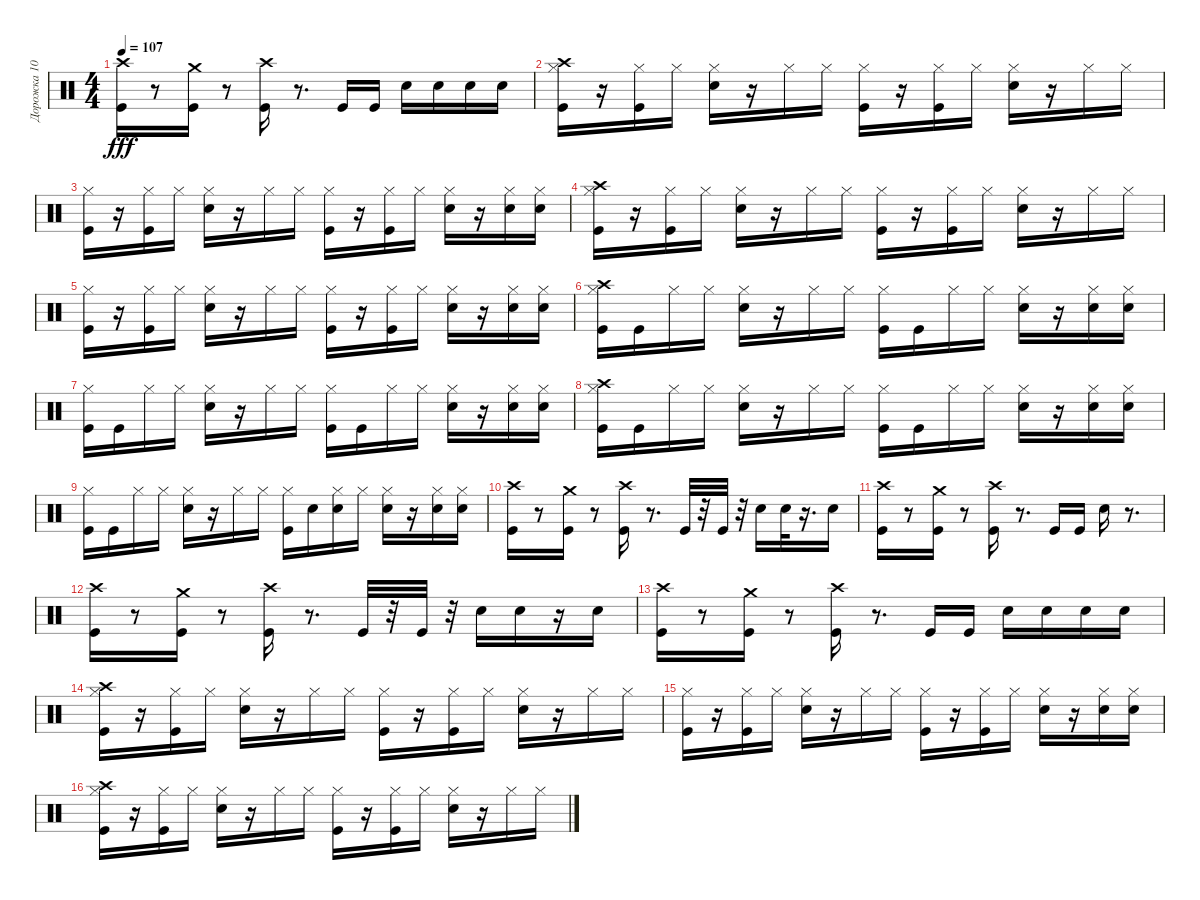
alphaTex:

\track ("Дорожка 10" "Дорожка 10") {instrument percussion}
\staff {score}
\articulation defaults
\ts (4 4)
\tempo 107
\clef neutral
\ks c
("Kick (hit)" "Crash high (hit)").16{dy fff} r.8 ("Crash medium (hit)" "Kick (hit)").16 r.8 ("Kick (hit)" "Crash high (hit)").16 r.8{d} "Kick (hit)".16 "Kick (hit)".16 "Electric Snare (hit)".16 "Electric Snare (hit)".16 "Electric Snare (hit)".16 "Electric Snare (hit)".16 |
("Kick (hit)" "Crash high (hit)" "Hi-Hat (closed)").16 r.16 ("Hi-Hat (closed)" "Kick (hit)").16 "Hi-Hat (closed)".16 ("Hi-Hat (closed)" "Electric Snare (hit)").16 r.16 "Hi-Hat (closed)".16 "Hi-Hat (closed)".16 ("Kick (hit)" "Hi-Hat (closed)").16 r.16 ("Hi-Hat (closed)" "Kick (hit)").16 "Hi-Hat (closed)".16 ("Electric Snare (hit)" "Hi-Hat (closed)").16 r.16 "Hi-Hat (closed)".16 "Hi-Hat (closed)".16 |
("Hi-Hat (closed)" "Kick (hit)").16 r.16 ("Kick (hit)" "Hi-Hat (closed)").16 "Hi-Hat (closed)".16 ("Electric Snare (hit)" "Hi-Hat (closed)").16 r.16 "Hi-Hat (closed)".16 "Hi-Hat (closed)".16 ("Hi-Hat (closed)" "Kick (hit)").16 r.16 ("Hi-Hat (closed)" "Kick (hit)").16 "Hi-Hat (closed)".16 ("Electric Snare (hit)" "Hi-Hat (closed)").16 r.16 ("Electric Snare (hit)" "Hi-Hat (closed)").16 ("Electric Snare (hit)" "Hi-Hat (closed)").16 |
("Kick (hit)" "Hi-Hat (closed)" "Crash high (hit)").16 r.16 ("Kick (hit)" "Hi-Hat (closed)").16 "Hi-Hat (closed)".16 ("Electric Snare (hit)" "Hi-Hat (closed)").16 r.16 "Hi-Hat (closed)".16 "Hi-Hat (closed)".16 ("Hi-Hat (closed)" "Kick (hit)").16 r.16 ("Hi-Hat (closed)" "Kick (hit)").16 "Hi-Hat (closed)".16 ("Hi-Hat (closed)" "Electric Snare (hit)").16 r.16 "Hi-Hat (closed)".16 "Hi-Hat (closed)".16 |
("Hi-Hat (closed)" "Kick (hit)").16 r.16 ("Kick (hit)" "Hi-Hat (closed)").16 "Hi-Hat (closed)".16 ("Hi-Hat (closed)" "Electric Snare (hit)").16 r.16 "Hi-Hat (closed)".16 "Hi-Hat (closed)".16 ("Kick (hit)" "Hi-Hat (closed)").16 r.16 ("Hi-Hat (closed)" "Kick (hit)").16 "Hi-Hat (closed)".16 ("Hi-Hat (closed)" "Electric Snare (hit)").16 r.16 ("Electric Snare (hit)" "Hi-Hat (closed)").16 ("Hi-Hat (closed)" "Electric Snare (hit)").16 |
("Hi-Hat (closed)" "Kick (hit)" "Crash high (hit)").16 "Kick (hit)".16 "Hi-Hat (closed)".16 "Hi-Hat (closed)".16 ("Hi-Hat (closed)" "Electric Snare (hit)").16 r.16 "Hi-Hat (closed)".16 "Hi-Hat (closed)".16 ("Hi-Hat (closed)" "Kick (hit)").16 "Kick (hit)".16 "Hi-Hat (closed)".16 "Hi-Hat (closed)".16 ("Electric Snare (hit)" "Hi-Hat (closed)").16 r.16 ("Hi-Hat (closed)" "Electric Snare (hit)").16 ("Hi-Hat (closed)" "Electric Snare (hit)").16 |
("Kick (hit)" "Hi-Hat (closed)").16 "Kick (hit)".16 "Hi-Hat (closed)".16 "Hi-Hat (closed)".16 ("Electric Snare (hit)" "Hi-Hat (closed)").16 r.16 "Hi-Hat (closed)".16 "Hi-Hat (closed)".16 ("Kick (hit)" "Hi-Hat (closed)").16 "Kick (hit)".16 "Hi-Hat (closed)".16 "Hi-Hat (closed)".16 ("Electric Snare (hit)" "Hi-Hat (closed)").16 r.16 ("Hi-Hat (closed)" "Electric Snare (hit)").16 ("Hi-Hat (closed)" "Electric Snare (hit)").16 |
("Kick (hit)" "Hi-Hat (closed)" "Crash high (hit)").16 "Kick (hit)".16 "Hi-Hat (closed)".16 "Hi-Hat (closed)".16 ("Electric Snare (hit)" "Hi-Hat (closed)").16 r.16 "Hi-Hat (closed)".16 "Hi-Hat (closed)".16 ("Hi-Hat (closed)" "Kick (hit)").16 "Kick (hit)".16 "Hi-Hat (closed)".16 "Hi-Hat (closed)".16 ("Electric Snare (hit)" "Hi-Hat (closed)").16 r.16 ("Hi-Hat (closed)" "Electric Snare (hit)").16 ("Hi-Hat (closed)" "Electric Snare (hit)").16 |
("Kick (hit)" "Hi-Hat (closed)").16 "Kick (hit)".16 "Hi-Hat (closed)".16 "Hi-Hat (closed)".16 ("Hi-Hat (closed)" "Electric Snare (hit)").16 r.16 "Hi-Hat (closed)".16 "Hi-Hat (closed)".16 ("Kick (hit)" "Hi-Hat (closed)").16 "Electric Snare (hit)".16 ("Hi-Hat (closed)" "Electric Snare (hit)").16 "Hi-Hat (closed)".16 ("Hi-Hat (closed)" "Electric Snare (hit)").16 r.16 ("Electric Snare (hit)" "Hi-Hat (closed)").16 ("Electric Snare (hit)" "Hi-Hat (closed)").16 |
("Kick (hit)" "Crash high (hit)").16 r.8 ("Kick (hit)" "Crash medium (hit)").16 r.8 ("Kick (hit)" "Crash high (hit)").16 r.8{d} "Kick (hit)".32 r.32 "Kick (hit)".32 r.32 "Electric Snare (hit)".16 "Electric Snare (hit)".32 r.16{d} "Electric Snare (hit)".16 |
("Kick (hit)" "Crash high (hit)").16 r.8 ("Crash medium (hit)" "Kick (hit)").16 r.8 ("Kick (hit)" "Crash high (hit)").16 r.8{d} "Kick (hit)".16 "Kick (hit)".16 "Electric Snare (hit)".16 r.8{d} |
("Crash high (hit)" "Kick (hit)").16 r.8 ("Crash medium (hit)" "Kick (hit)").16 r.8 ("Crash high (hit)" "Kick (hit)").16 r.8{d} "Kick (hit)".32 r.32 "Kick (hit)".32 r.32 "Electric Snare (hit)".16 "Electric Snare (hit)".16 r.16 "Electric Snare (hit)".16 |
("Kick (hit)" "Crash high (hit)").16 r.8 ("Crash medium (hit)" "Kick (hit)").16 r.8 ("Kick (hit)" "Crash high (hit)").16 r.8{d} "Kick (hit)".16 "Kick (hit)".16 "Electric Snare (hit)".16 "Electric Snare (hit)".16 "Electric Snare (hit)".16 "Electric Snare (hit)".16 |
("Kick (hit)" "Crash high (hit)" "Hi-Hat (closed)").16 r.16 ("Hi-Hat (closed)" "Kick (hit)").16 "Hi-Hat (closed)".16 ("Hi-Hat (closed)" "Electric Snare (hit)").16 r.16 "Hi-Hat (closed)".16 "Hi-Hat (closed)".16 ("Kick (hit)" "Hi-Hat (closed)").16 r.16 ("Hi-Hat (closed)" "Kick (hit)").16 "Hi-Hat (closed)".16 ("Electric Snare (hit)" "Hi-Hat (closed)").16 r.16 "Hi-Hat (closed)".16 "Hi-Hat (closed)".16 |
("Hi-Hat (closed)" "Kick (hit)").16 r.16 ("Kick (hit)" "Hi-Hat (closed)").16 "Hi-Hat (closed)".16 ("Electric Snare (hit)" "Hi-Hat (closed)").16 r.16 "Hi-Hat (closed)".16 "Hi-Hat (closed)".16 ("Hi-Hat (closed)" "Kick (hit)").16 r.16 ("Hi-Hat (closed)" "Kick (hit)").16 "Hi-Hat (closed)".16 ("Electric Snare (hit)" "Hi-Hat (closed)").16 r.16 ("Electric Snare (hit)" "Hi-Hat (closed)").16 ("Electric Snare (hit)" "Hi-Hat (closed)").16 |
("Kick (hit)" "Hi-Hat (closed)" "Crash high (hit)").16 r.16 ("Kick (hit)" "Hi-Hat (closed)").16 "Hi-Hat (closed)".16 ("Electric Snare (hit)" "Hi-Hat (closed)").16 r.16 "Hi-Hat (closed)".16 "Hi-Hat (closed)".16 ("Hi-Hat (closed)" "Kick (hit)").16 r.16 ("Hi-Hat (closed)" "Kick (hit)").16 "Hi-Hat (closed)".16 ("Hi-Hat (closed)" "Electric Snare (hit)").16 r.16 "Hi-Hat (closed)".16 "Hi-Hat (closed)".16
